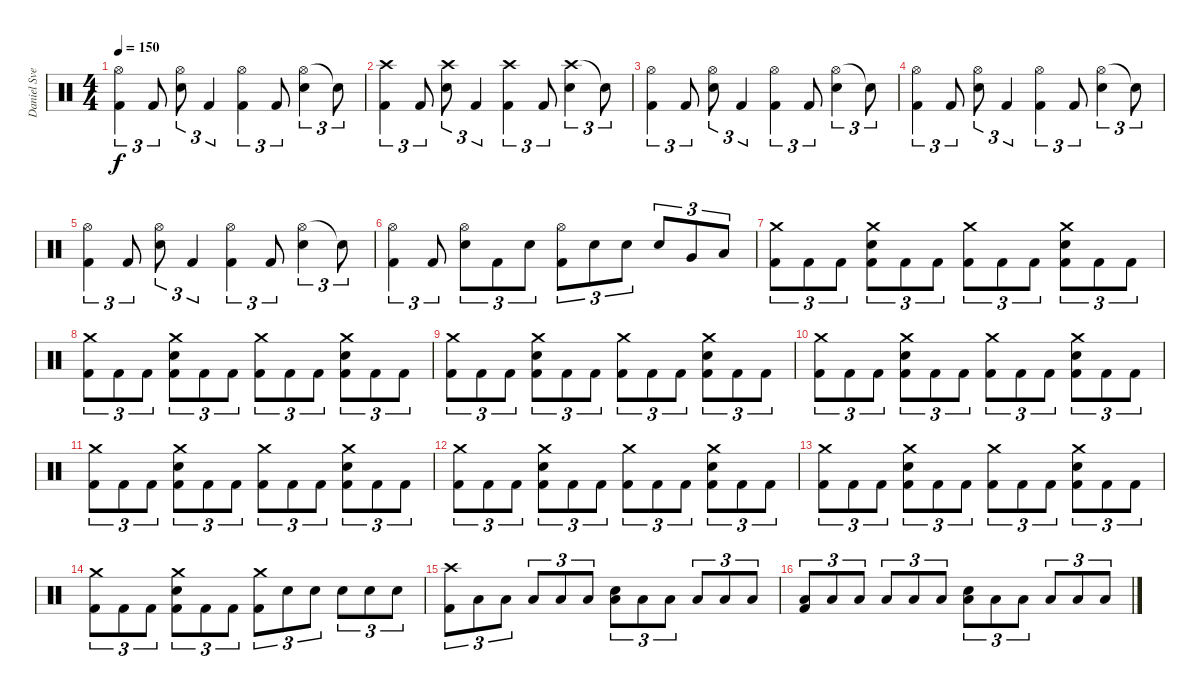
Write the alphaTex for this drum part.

\track ("Daniel Svensson" "Daniel Sve") {instrument percussion}
\staff {score}
\articulation defaults
\ts (4 4)
\tempo 150
\clef neutral
\ks c
("Hi-Hat (open)" "Kick (hit) 2").4{tu (3 2) dy f} "Kick (hit) 2".8{tu (3 2)} ("Hi-Hat (open)" "Electric Snare (hit)").8{tu (3 2)} "Kick (hit) 2".4{tu (3 2)} ("Hi-Hat (open)" "Kick (hit) 2").4{tu (3 2)} "Kick (hit) 2".8{tu (3 2)} ("Hi-Hat (open)" "Electric Snare (hit)").4{tu (3 2)} "Snare (hit)"{t}.8{tu (3 2)} |
("Crash high (hit)" "Kick (hit) 2").4{tu (3 2)} "Kick (hit) 2".8{tu (3 2)} ("Crash high (hit)" "Electric Snare (hit)").8{tu (3 2)} "Kick (hit) 2".4{tu (3 2)} ("Crash high (hit)" "Kick (hit) 2").4{tu (3 2)} "Kick (hit) 2".8{tu (3 2)} ("Crash high (hit)" "Electric Snare (hit)").4{tu (3 2)} "Snare (hit)"{t}.8{tu (3 2)} |
("Hi-Hat (open)" "Kick (hit) 2").4{tu (3 2)} "Kick (hit) 2".8{tu (3 2)} ("Hi-Hat (open)" "Electric Snare (hit)").8{tu (3 2)} "Kick (hit) 2".4{tu (3 2)} ("Hi-Hat (open)" "Kick (hit) 2").4{tu (3 2)} "Kick (hit) 2".8{tu (3 2)} ("Hi-Hat (open)" "Electric Snare (hit)").4{tu (3 2)} "Snare (hit)"{t}.8{tu (3 2)} |
("Hi-Hat (open)" "Kick (hit) 2").4{tu (3 2)} "Kick (hit) 2".8{tu (3 2)} ("Hi-Hat (open)" "Electric Snare (hit)").8{tu (3 2)} "Kick (hit) 2".4{tu (3 2)} ("Hi-Hat (open)" "Kick (hit) 2").4{tu (3 2)} "Kick (hit) 2".8{tu (3 2)} ("Hi-Hat (open)" "Electric Snare (hit)").4{tu (3 2)} "Snare (hit)"{t}.8{tu (3 2)} |
("Hi-Hat (open)" "Kick (hit) 2").4{tu (3 2)} "Kick (hit) 2".8{tu (3 2)} ("Hi-Hat (open)" "Electric Snare (hit)").8{tu (3 2)} "Kick (hit) 2".4{tu (3 2)} ("Hi-Hat (open)" "Kick (hit) 2").4{tu (3 2)} "Kick (hit) 2".8{tu (3 2)} ("Hi-Hat (open)" "Electric Snare (hit)").4{tu (3 2)} "Snare (hit)"{t}.8{tu (3 2)} |
("Hi-Hat (open)" "Kick (hit) 2").4{tu (3 2)} "Kick (hit) 2".8{tu (3 2)} ("Hi-Hat (open)" "Electric Snare (hit)").8{tu (3 2)} "Kick (hit) 2".8{tu (3 2)} "Electric Snare (hit)".8{tu (3 2)} ("Hi-Hat (open)" "Kick (hit) 2").8{tu (3 2)} "Electric Snare (hit)".8{tu (3 2)} "Electric Snare (hit)".8{tu (3 2)} "Electric Snare (hit)".8{tu (3 2)} "Very Low Tom (hit)".8{tu (3 2)} "Low Floor Tom (hit)".8{tu (3 2)} |
("Crash medium (hit)" "Kick (hit) 2").8{tu (3 2)} "Kick (hit) 2".8{tu (3 2)} "Kick (hit) 2".8{tu (3 2)} ("Crash medium (hit)" "Electric Snare (hit)" "Kick (hit) 2").8{tu (3 2)} "Kick (hit) 2".8{tu (3 2)} "Kick (hit) 2".8{tu (3 2)} ("Crash medium (hit)" "Kick (hit) 2").8{tu (3 2)} "Kick (hit) 2".8{tu (3 2)} "Kick (hit) 2".8{tu (3 2)} ("Crash medium (hit)" "Electric Snare (hit)" "Kick (hit) 2").8{tu (3 2)} "Kick (hit) 2".8{tu (3 2)} "Kick (hit) 2".8{tu (3 2)} |
("Crash medium (hit)" "Kick (hit) 2").8{tu (3 2)} "Kick (hit) 2".8{tu (3 2)} "Kick (hit) 2".8{tu (3 2)} ("Crash medium (hit)" "Electric Snare (hit)" "Kick (hit) 2").8{tu (3 2)} "Kick (hit) 2".8{tu (3 2)} "Kick (hit) 2".8{tu (3 2)} ("Crash medium (hit)" "Kick (hit) 2").8{tu (3 2)} "Kick (hit) 2".8{tu (3 2)} "Kick (hit) 2".8{tu (3 2)} ("Crash medium (hit)" "Electric Snare (hit)" "Kick (hit) 2").8{tu (3 2)} "Kick (hit) 2".8{tu (3 2)} "Kick (hit) 2".8{tu (3 2)} |
("Crash medium (hit)" "Kick (hit) 2").8{tu (3 2)} "Kick (hit) 2".8{tu (3 2)} "Kick (hit) 2".8{tu (3 2)} ("Crash medium (hit)" "Electric Snare (hit)" "Kick (hit) 2").8{tu (3 2)} "Kick (hit) 2".8{tu (3 2)} "Kick (hit) 2".8{tu (3 2)} ("Crash medium (hit)" "Kick (hit) 2").8{tu (3 2)} "Kick (hit) 2".8{tu (3 2)} "Kick (hit) 2".8{tu (3 2)} ("Crash medium (hit)" "Electric Snare (hit)" "Kick (hit) 2").8{tu (3 2)} "Kick (hit) 2".8{tu (3 2)} "Kick (hit) 2".8{tu (3 2)} |
("Crash medium (hit)" "Kick (hit) 2").8{tu (3 2)} "Kick (hit) 2".8{tu (3 2)} "Kick (hit) 2".8{tu (3 2)} ("Crash medium (hit)" "Electric Snare (hit)" "Kick (hit) 2").8{tu (3 2)} "Kick (hit) 2".8{tu (3 2)} "Kick (hit) 2".8{tu (3 2)} ("Crash medium (hit)" "Kick (hit) 2").8{tu (3 2)} "Kick (hit) 2".8{tu (3 2)} "Kick (hit) 2".8{tu (3 2)} ("Crash medium (hit)" "Electric Snare (hit)" "Kick (hit) 2").8{tu (3 2)} "Kick (hit) 2".8{tu (3 2)} "Kick (hit) 2".8{tu (3 2)} |
("Crash medium (hit)" "Kick (hit) 2").8{tu (3 2)} "Kick (hit) 2".8{tu (3 2)} "Kick (hit) 2".8{tu (3 2)} ("Crash medium (hit)" "Electric Snare (hit)" "Kick (hit) 2").8{tu (3 2)} "Kick (hit) 2".8{tu (3 2)} "Kick (hit) 2".8{tu (3 2)} ("Crash medium (hit)" "Kick (hit) 2").8{tu (3 2)} "Kick (hit) 2".8{tu (3 2)} "Kick (hit) 2".8{tu (3 2)} ("Crash medium (hit)" "Electric Snare (hit)" "Kick (hit) 2").8{tu (3 2)} "Kick (hit) 2".8{tu (3 2)} "Kick (hit) 2".8{tu (3 2)} |
("Crash medium (hit)" "Kick (hit) 2").8{tu (3 2)} "Kick (hit) 2".8{tu (3 2)} "Kick (hit) 2".8{tu (3 2)} ("Crash medium (hit)" "Electric Snare (hit)" "Kick (hit) 2").8{tu (3 2)} "Kick (hit) 2".8{tu (3 2)} "Kick (hit) 2".8{tu (3 2)} ("Crash medium (hit)" "Kick (hit) 2").8{tu (3 2)} "Kick (hit) 2".8{tu (3 2)} "Kick (hit) 2".8{tu (3 2)} ("Crash medium (hit)" "Electric Snare (hit)" "Kick (hit) 2").8{tu (3 2)} "Kick (hit) 2".8{tu (3 2)} "Kick (hit) 2".8{tu (3 2)} |
("Crash medium (hit)" "Kick (hit) 2").8{tu (3 2)} "Kick (hit) 2".8{tu (3 2)} "Kick (hit) 2".8{tu (3 2)} ("Crash medium (hit)" "Electric Snare (hit)" "Kick (hit) 2").8{tu (3 2)} "Kick (hit) 2".8{tu (3 2)} "Kick (hit) 2".8{tu (3 2)} ("Crash medium (hit)" "Kick (hit) 2").8{tu (3 2)} "Kick (hit) 2".8{tu (3 2)} "Kick (hit) 2".8{tu (3 2)} ("Crash medium (hit)" "Electric Snare (hit)" "Kick (hit) 2").8{tu (3 2)} "Kick (hit) 2".8{tu (3 2)} "Kick (hit) 2".8{tu (3 2)} |
("Crash medium (hit)" "Kick (hit) 2").8{tu (3 2)} "Kick (hit) 2".8{tu (3 2)} "Kick (hit) 2".8{tu (3 2)} ("Crash medium (hit)" "Electric Snare (hit)" "Kick (hit) 2").8{tu (3 2)} "Kick (hit) 2".8{tu (3 2)} "Kick (hit) 2".8{tu (3 2)} ("Crash medium (hit)" "Kick (hit) 2").8{tu (3 2)} "Electric Snare (hit)".8{tu (3 2)} "Electric Snare (hit)".8{tu (3 2)} "Electric Snare (hit)".8{tu (3 2)} "Electric Snare (hit)".8{tu (3 2)} "Electric Snare (hit)".8{tu (3 2)} |
("Crash high (hit)" "Kick (hit) 2").8{tu (3 2)} "Low Floor Tom (hit)".8{tu (3 2)} "Low Floor Tom (hit)".8{tu (3 2)} "Low Floor Tom (hit)".8{tu (3 2)} "Low Floor Tom (hit)".8{tu (3 2)} "Low Floor Tom (hit)".8{tu (3 2)} ("Electric Snare (hit)" "Low Floor Tom (hit)").8{tu (3 2)} "Low Floor Tom (hit)".8{tu (3 2)} "Low Floor Tom (hit)".8{tu (3 2)} "Low Floor Tom (hit)".8{tu (3 2)} "Low Floor Tom (hit)".8{tu (3 2)} "Low Floor Tom (hit)".8{tu (3 2)} |
("Kick (hit) 2" "Low Floor Tom (hit)").8{tu (3 2)} "Low Floor Tom (hit)".8{tu (3 2)} "Low Floor Tom (hit)".8{tu (3 2)} "Low Floor Tom (hit)".8{tu (3 2)} "Low Floor Tom (hit)".8{tu (3 2)} "Low Floor Tom (hit)".8{tu (3 2)} ("Electric Snare (hit)" "Low Floor Tom (hit)").8{tu (3 2)} "Low Floor Tom (hit)".8{tu (3 2)} "Low Floor Tom (hit)".8{tu (3 2)} "Low Floor Tom (hit)".8{tu (3 2)} "Low Floor Tom (hit)".8{tu (3 2)} "Low Floor Tom (hit)".8{tu (3 2)}
